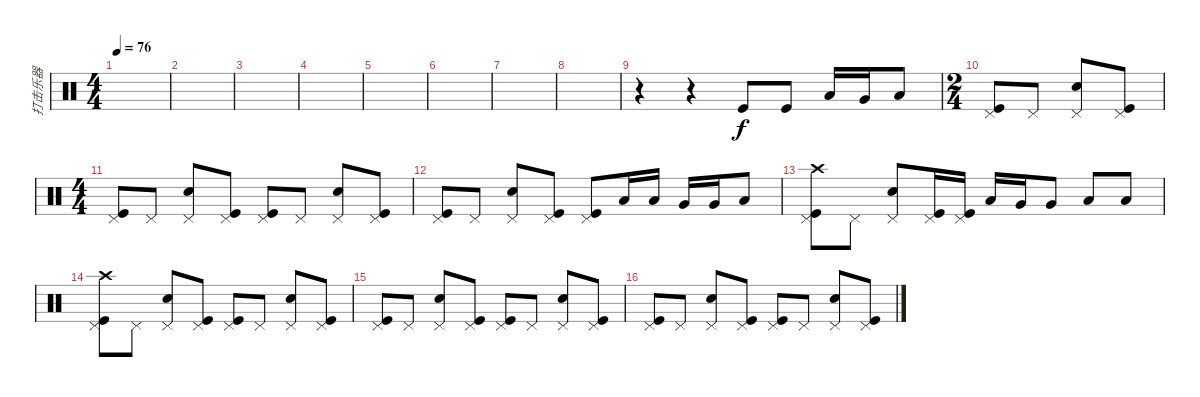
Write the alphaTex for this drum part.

\track ("打击乐器" "打击乐器") {instrument percussion}
\staff {score}
\articulation defaults
\ts (4 4)
\tempo 76
\clef neutral
\ks c
|
|
|
|
|
|
|
|
r.4 r.4 "Kick (hit)".8 "Kick (hit)".8 "Low Tom (hit)".16 "Very Low Tom (hit)".16 "Low Floor Tom (hit)".8 |
\ts (2 4)
("Pedal Hi-Hat (hit)" "Kick (hit)").8 "Pedal Hi-Hat (hit)".8 ("Pedal Hi-Hat (hit)" "Snare (hit) 2").8 ("Pedal Hi-Hat (hit)" "Kick (hit)").8 |
\ts (4 4)
("Pedal Hi-Hat (hit)" "Kick (hit)").8 "Pedal Hi-Hat (hit)".8 ("Pedal Hi-Hat (hit)" "Snare (hit) 2").8 ("Pedal Hi-Hat (hit)" "Kick (hit)").8 ("Pedal Hi-Hat (hit)" "Kick (hit)").8 "Pedal Hi-Hat (hit)".8 ("Pedal Hi-Hat (hit)" "Snare (hit) 2").8 ("Pedal Hi-Hat (hit)" "Kick (hit)").8 |
("Pedal Hi-Hat (hit)" "Kick (hit)").8 "Pedal Hi-Hat (hit)".8 ("Pedal Hi-Hat (hit)" "Snare (hit) 2").8 ("Pedal Hi-Hat (hit)" "Kick (hit)").8 ("Pedal Hi-Hat (hit)" "Kick (hit)").8 "Low Tom (hit)".16 "Low Tom (hit)".16 "Very Low Tom (hit)".16 "Very Low Tom (hit)".16 "Low Floor Tom (hit)".8 |
("Pedal Hi-Hat (hit)" "Crash high (hit)" "Kick (hit)").8 "Pedal Hi-Hat (hit)".8 ("Pedal Hi-Hat (hit)" "Snare (hit) 2").8 ("Pedal Hi-Hat (hit)" "Kick (hit)").16 ("Pedal Hi-Hat (hit)" "Kick (hit)").16 "Low Tom (hit)".16 "Very Low Tom (hit)".16 "Very Low Tom (hit)".8 "Low Floor Tom (hit)".8 "Low Floor Tom (hit)".8 |
("Pedal Hi-Hat (hit)" "Crash high (hit)" "Kick (hit)").8 "Pedal Hi-Hat (hit)".8 ("Pedal Hi-Hat (hit)" "Snare (hit) 2").8 ("Pedal Hi-Hat (hit)" "Kick (hit)").8 ("Pedal Hi-Hat (hit)" "Kick (hit)").8 "Pedal Hi-Hat (hit)".8 ("Pedal Hi-Hat (hit)" "Snare (hit) 2").8 ("Pedal Hi-Hat (hit)" "Kick (hit)").8 |
("Pedal Hi-Hat (hit)" "Kick (hit)").8 "Pedal Hi-Hat (hit)".8 ("Pedal Hi-Hat (hit)" "Snare (hit) 2").8 ("Pedal Hi-Hat (hit)" "Kick (hit)").8 ("Pedal Hi-Hat (hit)" "Kick (hit)").8 "Pedal Hi-Hat (hit)".8 ("Pedal Hi-Hat (hit)" "Snare (hit) 2").8 ("Pedal Hi-Hat (hit)" "Kick (hit)").8 |
("Pedal Hi-Hat (hit)" "Kick (hit)").8 "Pedal Hi-Hat (hit)".8 ("Pedal Hi-Hat (hit)" "Snare (hit) 2").8 ("Pedal Hi-Hat (hit)" "Kick (hit)").8 ("Pedal Hi-Hat (hit)" "Kick (hit)").8 "Pedal Hi-Hat (hit)".8 ("Pedal Hi-Hat (hit)" "Snare (hit) 2").8 ("Pedal Hi-Hat (hit)" "Kick (hit)").8
